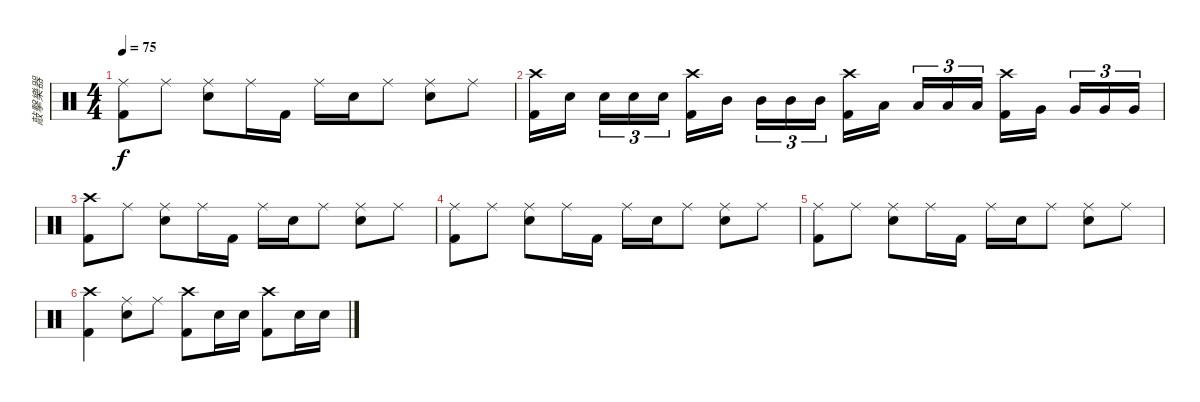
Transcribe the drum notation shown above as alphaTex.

\track ("敲擊樂器" "敲擊樂器") {instrument percussion}
\staff {score}
\articulation defaults
\ts (4 4)
\tempo 75
\clef neutral
\ks c
("Ride (middle)" "Kick (hit) 2").8{dy f} "Ride (middle)".8 ("Ride (middle)" "Snare (hit) 2").8 "Ride (middle)".16 "Kick (hit) 2".16 "Ride (middle)".16 "Snare (hit) 2".16 "Ride (middle)".8 ("Ride (middle)" "Snare (hit) 2").8 "Ride (middle)".8 |
("Crash high (hit)" "Kick (hit) 2").16 "Snare (hit) 2".16 "Snare (hit) 2".16{tu (3 2)} "Snare (hit) 2".16{tu (3 2)} "Snare (hit) 2".16{tu (3 2)} ("Crash high (hit)" "Kick (hit) 2").16 "Mid Tom (hit)".16 "Mid Tom (hit)".16{tu (3 2)} "Mid Tom (hit)".16{tu (3 2)} "Mid Tom (hit)".16{tu (3 2)} ("Crash high (hit)" "Kick (hit) 2").16 "Low Tom (hit)".16 "Low Tom (hit)".16{tu (3 2)} "Low Tom (hit)".16{tu (3 2)} "Low Tom (hit)".16{tu (3 2)} ("Crash high (hit)" "Kick (hit) 2").16 "Very Low Tom (hit)".16 "Very Low Tom (hit)".16{tu (3 2)} "Very Low Tom (hit)".16{tu (3 2)} "Very Low Tom (hit)".16{tu (3 2)} |
("Crash high (hit)" "Kick (hit) 2").8 "Ride (middle)".8 ("Ride (middle)" "Snare (hit) 2").8 "Ride (middle)".16 "Kick (hit) 2".16 "Ride (middle)".16 "Snare (hit) 2".16 "Ride (middle)".8 ("Ride (middle)" "Snare (hit) 2").8 "Ride (middle)".8 |
("Ride (middle)" "Kick (hit) 2").8 "Ride (middle)".8 ("Ride (middle)" "Snare (hit) 2").8 "Ride (middle)".16 "Kick (hit) 2".16 "Ride (middle)".16 "Snare (hit) 2".16 "Ride (middle)".8 ("Ride (middle)" "Snare (hit) 2").8 "Ride (middle)".8 |
("Ride (middle)" "Kick (hit) 2").8 "Ride (middle)".8 ("Ride (middle)" "Snare (hit) 2").8 "Ride (middle)".16 "Kick (hit) 2".16 "Ride (middle)".16 "Snare (hit) 2".16 "Ride (middle)".8 ("Ride (middle)" "Snare (hit) 2").8 "Ride (middle)".8 |
("Crash high (hit)" "Kick (hit) 2").4 ("Ride (middle)" "Snare (hit) 2").8 "Ride (middle)".8 ("Crash high (hit)" "Kick (hit) 2").8 "Snare (hit) 2".16 "Snare (hit) 2".16 ("Crash high (hit)" "Kick (hit) 2").8 "Snare (hit) 2".16 "Snare (hit) 2".16
